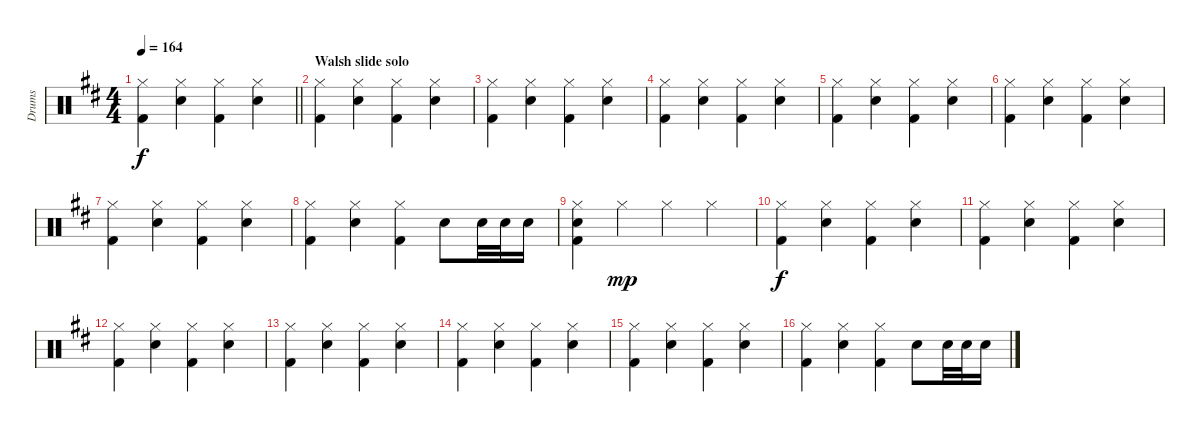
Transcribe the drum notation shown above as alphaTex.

\track ("Drums" "Drums") {instrument percussion}
\staff {score}
\articulation defaults
\ts (4 4)
\tempo 164
\clef neutral
\barLineRight lightlight
\ks d
("Hi-Hat (closed)" "Kick (hit) 2").4{dy f} ("Hi-Hat (closed)" "Snare (hit) 2").4 ("Hi-Hat (closed)" "Kick (hit) 2").4 ("Hi-Hat (closed)" "Snare (hit) 2").4 |
\section ("" "Walsh slide solo")
("Hi-Hat (closed)" "Kick (hit) 2").4 ("Hi-Hat (closed)" "Snare (hit) 2").4 ("Hi-Hat (closed)" "Kick (hit) 2").4 ("Hi-Hat (closed)" "Snare (hit) 2").4 |
("Hi-Hat (closed)" "Kick (hit) 2").4 ("Hi-Hat (closed)" "Snare (hit) 2").4 ("Hi-Hat (closed)" "Kick (hit) 2").4 ("Hi-Hat (closed)" "Snare (hit) 2").4 |
("Hi-Hat (closed)" "Kick (hit) 2").4 ("Hi-Hat (closed)" "Snare (hit) 2").4 ("Hi-Hat (closed)" "Kick (hit) 2").4 ("Hi-Hat (closed)" "Snare (hit) 2").4 |
("Hi-Hat (closed)" "Kick (hit) 2").4 ("Hi-Hat (closed)" "Snare (hit) 2").4 ("Hi-Hat (closed)" "Kick (hit) 2").4 ("Hi-Hat (closed)" "Snare (hit) 2").4 |
("Hi-Hat (closed)" "Kick (hit) 2").4 ("Hi-Hat (closed)" "Snare (hit) 2").4 ("Hi-Hat (closed)" "Kick (hit) 2").4 ("Hi-Hat (closed)" "Snare (hit) 2").4 |
("Hi-Hat (closed)" "Kick (hit) 2").4 ("Hi-Hat (closed)" "Snare (hit) 2").4 ("Hi-Hat (closed)" "Kick (hit) 2").4 ("Hi-Hat (closed)" "Snare (hit) 2").4 |
("Hi-Hat (closed)" "Kick (hit) 2").4 ("Hi-Hat (closed)" "Snare (hit) 2").4 ("Hi-Hat (closed)" "Kick (hit) 2").4 "Snare (hit) 2".8 "Snare (hit) 2".32 "Snare (hit) 2".32 "Snare (hit) 2".16 |
("Hi-Hat (closed)" "Snare (hit) 2" "Kick (hit) 2").4 "Hi-Hat (closed)".4{dy mp} "Hi-Hat (closed)".4 "Hi-Hat (closed)".4 |
("Hi-Hat (closed)" "Kick (hit) 2").4{dy f} ("Hi-Hat (closed)" "Snare (hit) 2").4 ("Hi-Hat (closed)" "Kick (hit) 2").4 ("Hi-Hat (closed)" "Snare (hit) 2").4 |
("Hi-Hat (closed)" "Kick (hit) 2").4 ("Hi-Hat (closed)" "Snare (hit) 2").4 ("Hi-Hat (closed)" "Kick (hit) 2").4 ("Hi-Hat (closed)" "Snare (hit) 2").4 |
("Hi-Hat (closed)" "Kick (hit) 2").4 ("Hi-Hat (closed)" "Snare (hit) 2").4 ("Hi-Hat (closed)" "Kick (hit) 2").4 ("Hi-Hat (closed)" "Snare (hit) 2").4 |
("Hi-Hat (closed)" "Kick (hit) 2").4 ("Hi-Hat (closed)" "Snare (hit) 2").4 ("Hi-Hat (closed)" "Kick (hit) 2").4 ("Hi-Hat (closed)" "Snare (hit) 2").4 |
("Hi-Hat (closed)" "Kick (hit) 2").4 ("Hi-Hat (closed)" "Snare (hit) 2").4 ("Hi-Hat (closed)" "Kick (hit) 2").4 ("Hi-Hat (closed)" "Snare (hit) 2").4 |
("Hi-Hat (closed)" "Kick (hit) 2").4 ("Hi-Hat (closed)" "Snare (hit) 2").4 ("Hi-Hat (closed)" "Kick (hit) 2").4 ("Hi-Hat (closed)" "Snare (hit) 2").4 |
("Hi-Hat (closed)" "Kick (hit) 2").4 ("Hi-Hat (closed)" "Snare (hit) 2").4 ("Hi-Hat (closed)" "Kick (hit) 2").4 "Snare (hit) 2".8 "Snare (hit) 2".32 "Snare (hit) 2".32 "Snare (hit) 2".16
